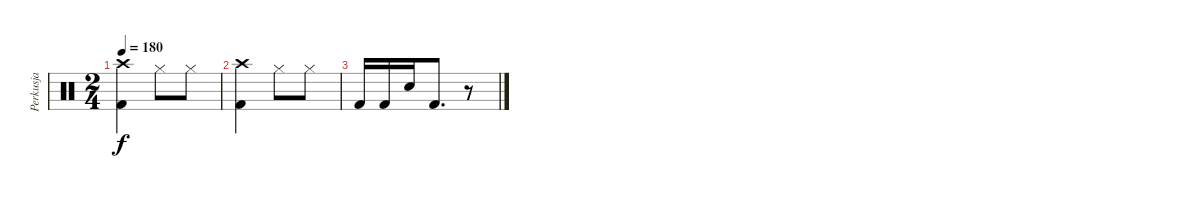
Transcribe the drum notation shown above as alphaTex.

\track ("Perkusja" "Perkusja") {instrument percussion}
\staff {score}
\articulation defaults
\ts (2 4)
\tempo 180
\clef neutral
\ks c
("Crash high (hit)" "Kick (hit) 2").4{dy f} "Hi-Hat (closed)".8 "Hi-Hat (closed)".8 |
("Crash high (hit)" "Kick (hit) 2").4 "Hi-Hat (closed)".8 "Hi-Hat (closed)".8 |
"Kick (hit) 2".16 "Kick (hit) 2".16 "Snare (hit) 2".16 "Kick (hit) 2".8{d} r.8
